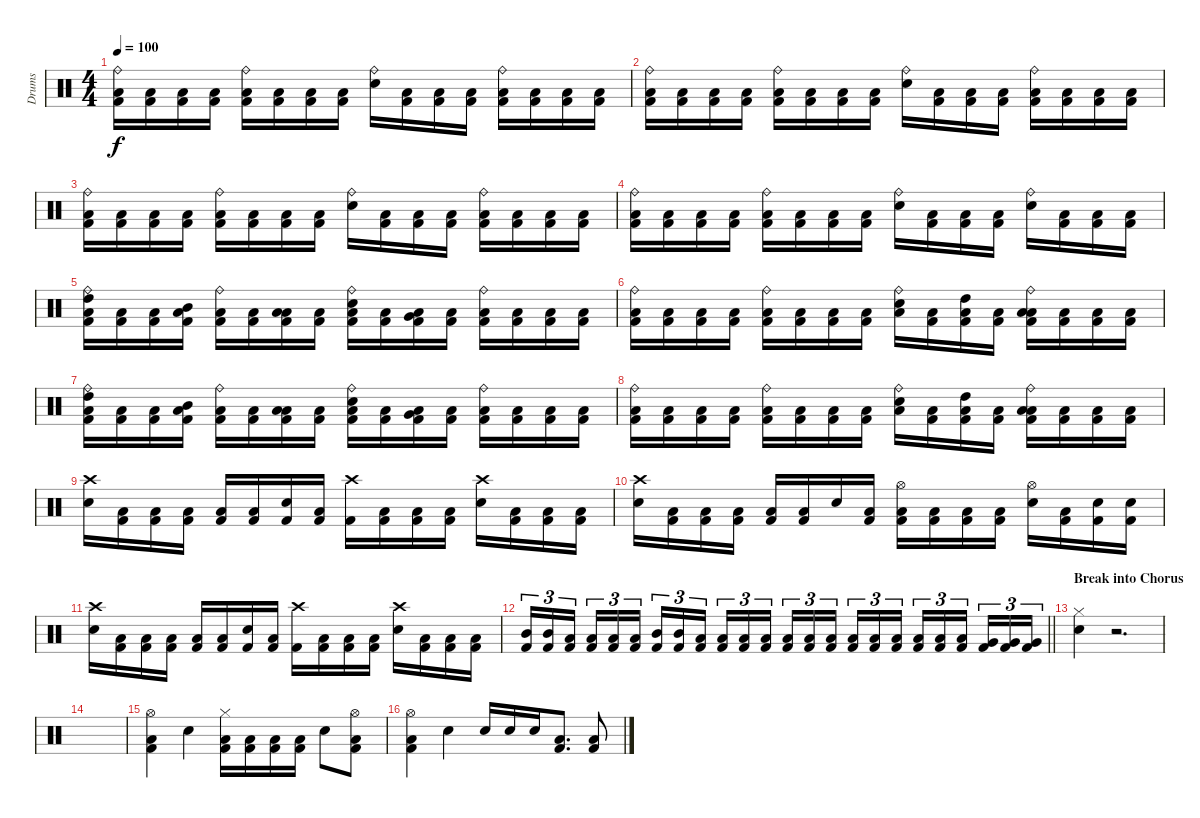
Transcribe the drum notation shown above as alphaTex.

\track ("Drums" "Drums") {instrument percussion}
\staff {score}
\articulation defaults
\ts (4 4)
\tempo 100
\clef neutral
\ks c
("Ride (bell)" "Low Floor Tom (hit)" "Kick (hit) 2").16{dy f} ("Low Floor Tom (hit)" "Kick (hit) 2").16 ("Low Floor Tom (hit)" "Kick (hit) 2").16 ("Low Floor Tom (hit)" "Kick (hit) 2").16 ("Ride (bell)" "Low Floor Tom (hit)" "Kick (hit) 2").16 ("Low Floor Tom (hit)" "Kick (hit) 2").16 ("Low Floor Tom (hit)" "Kick (hit) 2").16 ("Low Floor Tom (hit)" "Kick (hit) 2").16 ("Ride (bell)" "Snare (hit) 2").16 ("Low Floor Tom (hit)" "Kick (hit) 2").16 ("Low Floor Tom (hit)" "Kick (hit) 2").16 ("Low Floor Tom (hit)" "Kick (hit) 2").16 ("Ride (bell)" "Low Floor Tom (hit)" "Kick (hit) 2").16 ("Low Floor Tom (hit)" "Kick (hit) 2").16 ("Low Floor Tom (hit)" "Kick (hit) 2").16 ("Low Floor Tom (hit)" "Kick (hit) 2").16 |
("Ride (bell)" "Low Floor Tom (hit)" "Kick (hit) 2").16 ("Low Floor Tom (hit)" "Kick (hit) 2").16 ("Low Floor Tom (hit)" "Kick (hit) 2").16 ("Low Floor Tom (hit)" "Kick (hit) 2").16 ("Ride (bell)" "Low Floor Tom (hit)" "Kick (hit) 2").16 ("Low Floor Tom (hit)" "Kick (hit) 2").16 ("Low Floor Tom (hit)" "Kick (hit) 2").16 ("Low Floor Tom (hit)" "Kick (hit) 2").16 ("Ride (bell)" "Snare (hit) 2").16 ("Low Floor Tom (hit)" "Kick (hit) 2").16 ("Low Floor Tom (hit)" "Kick (hit) 2").16 ("Low Floor Tom (hit)" "Kick (hit) 2").16 ("Ride (bell)" "Low Floor Tom (hit)" "Kick (hit) 2").16 ("Low Floor Tom (hit)" "Kick (hit) 2").16 ("Low Floor Tom (hit)" "Kick (hit) 2").16 ("Low Floor Tom (hit)" "Kick (hit) 2").16 |
("Ride (bell)" "Low Floor Tom (hit)" "Kick (hit) 2").16 ("Low Floor Tom (hit)" "Kick (hit) 2").16 ("Low Floor Tom (hit)" "Kick (hit) 2").16 ("Low Floor Tom (hit)" "Kick (hit) 2").16 ("Ride (bell)" "Low Floor Tom (hit)" "Kick (hit) 2").16 ("Low Floor Tom (hit)" "Kick (hit) 2").16 ("Low Floor Tom (hit)" "Kick (hit) 2").16 ("Low Floor Tom (hit)" "Kick (hit) 2").16 ("Ride (bell)" "Snare (hit) 2").16 ("Low Floor Tom (hit)" "Kick (hit) 2").16 ("Low Floor Tom (hit)" "Kick (hit) 2").16 ("Low Floor Tom (hit)" "Kick (hit) 2").16 ("Ride (bell)" "Low Floor Tom (hit)" "Kick (hit) 2").16 ("Low Floor Tom (hit)" "Kick (hit) 2").16 ("Low Floor Tom (hit)" "Kick (hit) 2").16 ("Low Floor Tom (hit)" "Kick (hit) 2").16 |
("Ride (bell)" "Low Floor Tom (hit)" "Kick (hit) 2").16 ("Low Floor Tom (hit)" "Kick (hit) 2").16 ("Low Floor Tom (hit)" "Kick (hit) 2").16 ("Low Floor Tom (hit)" "Kick (hit) 2").16 ("Ride (bell)" "Low Floor Tom (hit)" "Kick (hit) 2").16 ("Low Floor Tom (hit)" "Kick (hit) 2").16 ("Low Floor Tom (hit)" "Kick (hit) 2").16 ("Low Floor Tom (hit)" "Kick (hit) 2").16 ("Ride (bell)" "Snare (hit) 2").16 ("Low Floor Tom (hit)" "Kick (hit) 2").16 ("Low Floor Tom (hit)" "Kick (hit) 2").16 ("Low Floor Tom (hit)" "Kick (hit) 2").16 ("Ride (bell)" "Snare (hit) 2").16 ("Low Floor Tom (hit)" "Kick (hit) 2").16 ("Low Floor Tom (hit)" "Kick (hit) 2").16 ("Low Floor Tom (hit)" "Kick (hit) 2").16 |
("Ride (bell)" "High Tom (hit)" "Low Floor Tom (hit)" "Kick (hit) 2").16 ("Low Floor Tom (hit)" "Kick (hit) 2").16 ("Low Floor Tom (hit)" "Kick (hit) 2").16 ("Mid Tom (hit)" "Low Floor Tom (hit)" "Kick (hit) 2").16 ("Ride (bell)" "Low Floor Tom (hit)" "Kick (hit) 2").16 ("Low Floor Tom (hit)" "Kick (hit) 2").16 ("Low Tom (hit)" "Low Floor Tom (hit)" "Kick (hit) 2").16 ("Low Floor Tom (hit)" "Kick (hit) 2").16 ("Ride (bell)" "Low Floor Tom (hit)" "Snare (hit) 2" "Kick (hit) 2").16 ("Low Floor Tom (hit)" "Kick (hit) 2").16 ("Very Low Tom (hit)" "Low Floor Tom (hit)" "Kick (hit) 2").16 ("Low Floor Tom (hit)" "Kick (hit) 2").16 ("Ride (bell)" "Low Floor Tom (hit)" "Kick (hit) 2").16 ("Low Floor Tom (hit)" "Kick (hit) 2").16 ("Low Floor Tom (hit)" "Kick (hit) 2").16 ("Low Floor Tom (hit)" "Kick (hit) 2").16 |
("Ride (bell)" "Low Floor Tom (hit)" "Kick (hit) 2").16 ("Low Floor Tom (hit)" "Kick (hit) 2").16 ("Low Floor Tom (hit)" "Kick (hit) 2").16 ("Low Floor Tom (hit)" "Kick (hit) 2").16 ("Ride (bell)" "Low Floor Tom (hit)" "Kick (hit) 2").16 ("Low Floor Tom (hit)" "Kick (hit) 2").16 ("Low Floor Tom (hit)" "Kick (hit) 2").16 ("Low Floor Tom (hit)" "Kick (hit) 2").16 ("Ride (bell)" "Low Floor Tom (hit)" "Snare (hit) 2").16 ("Low Floor Tom (hit)" "Kick (hit) 2").16 ("High Tom (hit)" "Low Floor Tom (hit)" "Kick (hit) 2").16 ("Low Floor Tom (hit)" "Kick (hit) 2").16 ("Ride (bell)" "Low Tom (hit)" "Low Floor Tom (hit)" "Kick (hit) 2").16 ("Low Floor Tom (hit)" "Kick (hit) 2").16 ("Low Floor Tom (hit)" "Kick (hit) 2").16 ("Low Floor Tom (hit)" "Kick (hit) 2").16 |
("Ride (bell)" "High Tom (hit)" "Low Floor Tom (hit)" "Kick (hit) 2").16 ("Low Floor Tom (hit)" "Kick (hit) 2").16 ("Low Floor Tom (hit)" "Kick (hit) 2").16 ("Mid Tom (hit)" "Low Floor Tom (hit)" "Kick (hit) 2").16 ("Ride (bell)" "Low Floor Tom (hit)" "Kick (hit) 2").16 ("Low Floor Tom (hit)" "Kick (hit) 2").16 ("Low Tom (hit)" "Low Floor Tom (hit)" "Kick (hit) 2").16 ("Low Floor Tom (hit)" "Kick (hit) 2").16 ("Ride (bell)" "Low Floor Tom (hit)" "Snare (hit) 2" "Kick (hit) 2").16 ("Low Floor Tom (hit)" "Kick (hit) 2").16 ("Very Low Tom (hit)" "Low Floor Tom (hit)" "Kick (hit) 2").16 ("Low Floor Tom (hit)" "Kick (hit) 2").16 ("Ride (bell)" "Low Floor Tom (hit)" "Kick (hit) 2").16 ("Low Floor Tom (hit)" "Kick (hit) 2").16 ("Low Floor Tom (hit)" "Kick (hit) 2").16 ("Low Floor Tom (hit)" "Kick (hit) 2").16 |
("Ride (bell)" "Low Floor Tom (hit)" "Kick (hit) 2").16 ("Low Floor Tom (hit)" "Kick (hit) 2").16 ("Low Floor Tom (hit)" "Kick (hit) 2").16 ("Low Floor Tom (hit)" "Kick (hit) 2").16 ("Ride (bell)" "Low Floor Tom (hit)" "Kick (hit) 2").16 ("Low Floor Tom (hit)" "Kick (hit) 2").16 ("Low Floor Tom (hit)" "Kick (hit) 2").16 ("Low Floor Tom (hit)" "Kick (hit) 2").16 ("Ride (bell)" "Low Floor Tom (hit)" "Snare (hit) 2").16 ("Low Floor Tom (hit)" "Kick (hit) 2").16 ("High Tom (hit)" "Low Floor Tom (hit)" "Kick (hit) 2").16 ("Low Floor Tom (hit)" "Kick (hit) 2").16 ("Ride (bell)" "Low Tom (hit)" "Low Floor Tom (hit)" "Kick (hit) 2").16 ("Low Floor Tom (hit)" "Kick (hit) 2").16 ("Low Floor Tom (hit)" "Kick (hit) 2").16 ("Low Floor Tom (hit)" "Kick (hit) 2").16 |
("Crash high (hit)" "Snare (hit) 2").16 ("Low Floor Tom (hit)" "Kick (hit) 2").16 ("Low Tom (hit)" "Kick (hit) 2").16 ("Low Tom (hit)" "Kick (hit) 2").16 ("Low Floor Tom (hit)" "Kick (hit) 2").16 ("Low Floor Tom (hit)" "Kick (hit) 2").16 ("Snare (hit) 2" "Kick (hit) 2").16 ("Low Floor Tom (hit)" "Kick (hit) 2").16 ("Crash high (hit)" "Kick (hit) 2").16 ("Low Floor Tom (hit)" "Kick (hit) 2").16 ("Low Floor Tom (hit)" "Kick (hit) 2").16 ("Low Floor Tom (hit)" "Kick (hit) 2").16 ("Crash high (hit)" "Snare (hit) 2").16 ("Low Floor Tom (hit)" "Kick (hit) 2").16 ("Low Floor Tom (hit)" "Kick (hit) 2").16 ("Low Floor Tom (hit)" "Kick (hit) 2").16 |
("Crash high (hit)" "Snare (hit) 2").16 ("Low Floor Tom (hit)" "Kick (hit) 2").16 ("Low Tom (hit)" "Kick (hit) 2").16 ("Low Tom (hit)" "Kick (hit) 2").16 ("Low Floor Tom (hit)" "Kick (hit) 2").16 ("Low Floor Tom (hit)" "Kick (hit) 2").16 "Snare (hit) 2".16 ("Low Floor Tom (hit)" "Kick (hit) 2").16 ("Hi-Hat (open)" "Low Floor Tom (hit)" "Kick (hit) 2").16 ("Low Floor Tom (hit)" "Kick (hit) 2").16 ("Low Floor Tom (hit)" "Kick (hit) 2").16 ("Low Floor Tom (hit)" "Kick (hit) 2").16 ("Hi-Hat (open)" "Snare (hit) 2").16 ("Low Floor Tom (hit)" "Kick (hit) 2").16 ("Snare (hit) 2" "Kick (hit) 2").16 ("Snare (hit) 2" "Kick (hit) 2").16 |
("Crash high (hit)" "Snare (hit) 2").16 ("Low Floor Tom (hit)" "Kick (hit) 2").16 ("Low Tom (hit)" "Kick (hit) 2").16 ("Low Tom (hit)" "Kick (hit) 2").16 ("Low Floor Tom (hit)" "Kick (hit) 2").16 ("Low Floor Tom (hit)" "Kick (hit) 2").16 ("Snare (hit) 2" "Kick (hit) 2").16 ("Low Floor Tom (hit)" "Kick (hit) 2").16 ("Crash high (hit)" "Kick (hit) 2").16 ("Low Floor Tom (hit)" "Kick (hit) 2").16 ("Low Floor Tom (hit)" "Kick (hit) 2").16 ("Low Floor Tom (hit)" "Kick (hit) 2").16 ("Crash high (hit)" "Snare (hit) 2").16 ("Low Floor Tom (hit)" "Kick (hit) 2").16 ("Low Floor Tom (hit)" "Kick (hit) 2").16 ("Low Floor Tom (hit)" "Kick (hit) 2").16 |
\barLineRight lightlight
("Mid Tom (hit)" "Kick (hit) 2").16{tu (3 2)} ("Mid Tom (hit)" "Kick (hit) 2").16{tu (3 2)} ("Low Floor Tom (hit)" "Kick (hit) 2").16{tu (3 2) beam splitsecondary} ("Low Tom (hit)" "Kick (hit) 2").16{tu (3 2)} ("Low Tom (hit)" "Kick (hit) 2").16{tu (3 2)} ("Low Floor Tom (hit)" "Kick (hit) 2").16{tu (3 2)} ("Mid Tom (hit)" "Kick (hit) 2").16{tu (3 2)} ("Mid Tom (hit)" "Kick (hit) 2").16{tu (3 2)} ("Low Floor Tom (hit)" "Kick (hit) 2").16{tu (3 2) beam splitsecondary} ("Low Tom (hit)" "Kick (hit) 2").16{tu (3 2)} ("Low Tom (hit)" "Kick (hit) 2").16{tu (3 2)} ("Low Floor Tom (hit)" "Kick (hit) 2").16{tu (3 2)} ("Low Tom (hit)" "Kick (hit) 2").16{tu (3 2)} ("Low Tom (hit)" "Kick (hit) 2").16{tu (3 2)} ("Low Tom (hit)" "Kick (hit) 2").16{tu (3 2) beam splitsecondary} ("Low Floor Tom (hit)" "Kick (hit) 2").16{tu (3 2)} ("Low Floor Tom (hit)" "Kick (hit) 2").16{tu (3 2)} ("Low Floor Tom (hit)" "Kick (hit) 2").16{tu (3 2)} ("Low Tom (hit)" "Kick (hit) 2").16{tu (3 2)} ("Low Tom (hit)" "Kick (hit) 2").16{tu (3 2)} ("Low Tom (hit)" "Kick (hit) 2").16{tu (3 2) beam splitsecondary} ("Very Low Tom (hit)" "Kick (hit) 2").16{tu (3 2)} ("Very Low Tom (hit)" "Kick (hit) 2").16{tu (3 2)} ("Very Low Tom (hit)" "Kick (hit) 2").16{tu (3 2)} |
\section ("" "Break into Chorus")
("Hi-Hat (closed)" "Snare (hit) 2").4 r.2{d} |
|
("Hi-Hat (open)" "Low Floor Tom (hit)" "Kick (hit) 2").4 "Snare (hit) 2".4 ("Hi-Hat (closed)" "Low Floor Tom (hit)" "Kick (hit) 2").16 ("Low Floor Tom (hit)" "Kick (hit) 2").16 ("Low Floor Tom (hit)" "Kick (hit) 2").16 ("Low Floor Tom (hit)" "Kick (hit) 2").16 "Snare (hit) 2".8 ("Hi-Hat (open)" "Low Floor Tom (hit)" "Kick (hit) 2").8 |
("Hi-Hat (open)" "Low Floor Tom (hit)" "Kick (hit) 2").4 "Snare (hit) 2".4 "Snare (hit) 2".16 "Snare (hit) 2".16 "Snare (hit) 2".16 ("Low Floor Tom (hit)" "Kick (hit) 2").8{d} ("Low Tom (hit)" "Kick (hit) 2").8
